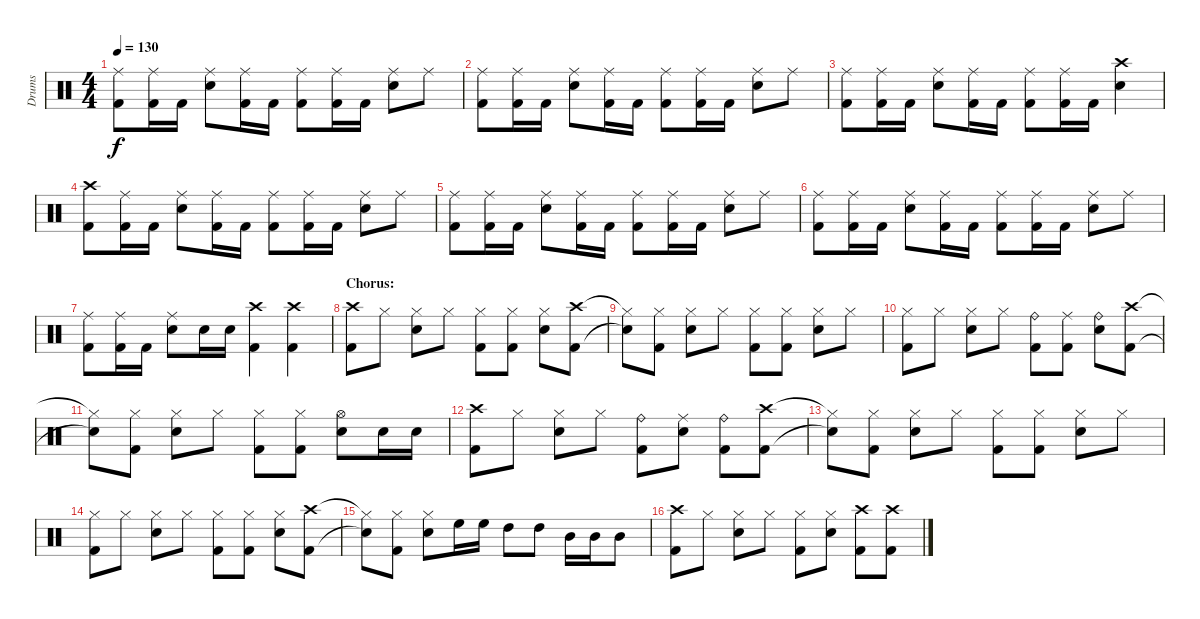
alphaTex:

\track ("Drums" "Drums") {instrument percussion}
\staff {score}
\articulation defaults
\ts (4 4)
\tempo 130
\clef neutral
\ks c
("Ride (middle)" "Kick (hit) 2").8{dy f} ("Ride (middle)" "Kick (hit) 2").16 "Kick (hit) 2".16 ("Ride (middle)" "Electric Snare (hit)").8 ("Ride (middle)" "Kick (hit) 2").16 "Kick (hit) 2".16 ("Ride (middle)" "Kick (hit) 2").8 ("Ride (middle)" "Kick (hit) 2").16 "Kick (hit) 2".16 ("Ride (middle)" "Electric Snare (hit)").8 "Ride (middle)".8 |
("Ride (middle)" "Kick (hit) 2").8 ("Ride (middle)" "Kick (hit) 2").16 "Kick (hit) 2".16 ("Ride (middle)" "Electric Snare (hit)").8 ("Ride (middle)" "Kick (hit) 2").16 "Kick (hit) 2".16 ("Ride (middle)" "Kick (hit) 2").8 ("Ride (middle)" "Kick (hit) 2").16 "Kick (hit) 2".16 ("Ride (middle)" "Electric Snare (hit)").8 "Ride (middle)".8 |
("Ride (middle)" "Kick (hit) 2").8 ("Ride (middle)" "Kick (hit) 2").16 "Kick (hit) 2".16 ("Ride (middle)" "Electric Snare (hit)").8 ("Ride (middle)" "Kick (hit) 2").16 "Kick (hit) 2".16 ("Ride (middle)" "Kick (hit) 2").8 ("Ride (middle)" "Kick (hit) 2").16 "Kick (hit) 2".16 ("Crash high (hit)" "Electric Snare (hit)").4 |
("Crash high (hit)" "Kick (hit) 2").8 ("Ride (middle)" "Kick (hit) 2").16 "Kick (hit) 2".16 ("Ride (middle)" "Electric Snare (hit)").8 ("Ride (middle)" "Kick (hit) 2").16 "Kick (hit) 2".16 ("Ride (middle)" "Kick (hit) 2").8 ("Ride (middle)" "Kick (hit) 2").16 "Kick (hit) 2".16 ("Ride (middle)" "Electric Snare (hit)").8 "Ride (middle)".8 |
("Ride (middle)" "Kick (hit) 2").8 ("Ride (middle)" "Kick (hit) 2").16 "Kick (hit) 2".16 ("Ride (middle)" "Electric Snare (hit)").8 ("Ride (middle)" "Kick (hit) 2").16 "Kick (hit) 2".16 ("Ride (middle)" "Kick (hit) 2").8 ("Ride (middle)" "Kick (hit) 2").16 "Kick (hit) 2".16 ("Ride (middle)" "Electric Snare (hit)").8 "Ride (middle)".8 |
("Ride (middle)" "Kick (hit) 2").8 ("Ride (middle)" "Kick (hit) 2").16 "Kick (hit) 2".16 ("Ride (middle)" "Electric Snare (hit)").8 ("Ride (middle)" "Kick (hit) 2").16 "Kick (hit) 2".16 ("Ride (middle)" "Kick (hit) 2").8 ("Ride (middle)" "Kick (hit) 2").16 "Kick (hit) 2".16 ("Ride (middle)" "Electric Snare (hit)").8 "Ride (middle)".8 |
("Ride (middle)" "Kick (hit) 2").8 ("Ride (middle)" "Kick (hit) 2").16 "Kick (hit) 2".16 ("Ride (middle)" "Electric Snare (hit)").8 "Electric Snare (hit)".16 "Electric Snare (hit)".16 ("Crash high (hit)" "Kick (hit) 2").4 ("Crash high (hit)" "Kick (hit) 2").4 |
\section ("" "Chorus:")
("Crash high (hit)" "Kick (hit) 2").8 "Hi-Hat (closed)".8 ("Hi-Hat (closed)" "Electric Snare (hit)").8 "Hi-Hat (closed)".8 ("Hi-Hat (closed)" "Kick (hit) 2").8 ("Hi-Hat (closed)" "Kick (hit) 2").8 ("Hi-Hat (closed)" "Electric Snare (hit)").8 ("Crash high (hit)" "Kick (hit) 2").8 |
("Hi-Hat (closed)"{t} "Snare (hit)"{t}).8 ("Hi-Hat (closed)" "Kick (hit) 2").8 ("Hi-Hat (closed)" "Electric Snare (hit)").8 "Hi-Hat (closed)".8 ("Hi-Hat (closed)" "Kick (hit) 2").8 ("Hi-Hat (closed)" "Kick (hit) 2").8 ("Hi-Hat (closed)" "Electric Snare (hit)").8 "Hi-Hat (closed)".8 |
("Hi-Hat (closed)" "Kick (hit) 2").8 "Hi-Hat (closed)".8 ("Hi-Hat (closed)" "Electric Snare (hit)").8 "Hi-Hat (closed)".8 ("Ride (bell)" "Kick (hit) 2").8 ("Ride (middle)" "Kick (hit) 2").8 ("Ride (bell)" "Electric Snare (hit)").8 ("Crash high (hit)" "Kick (hit) 2").8 |
("Hi-Hat (closed)"{t} "Snare (hit)"{t}).8 ("Hi-Hat (closed)" "Kick (hit) 2").8 ("Hi-Hat (closed)" "Electric Snare (hit)").8 "Hi-Hat (closed)".8 ("Hi-Hat (closed)" "Kick (hit) 2").8 ("Hi-Hat (closed)" "Kick (hit) 2").8 ("Hi-Hat (open)" "Electric Snare (hit)").8 "Electric Snare (hit)".16 "Electric Snare (hit)".16 |
("Crash high (hit)" "Kick (hit) 2").8 "Hi-Hat (closed)".8 ("Hi-Hat (closed)" "Electric Snare (hit)").8 "Hi-Hat (closed)".8 ("Ride (bell)" "Kick (hit) 2").8 ("Ride (middle)" "Electric Snare (hit)").8 ("Ride (bell)" "Kick (hit) 2").8 ("Crash high (hit)" "Kick (hit) 2").8 |
("Hi-Hat (closed)"{t} "Snare (hit)"{t}).8 ("Hi-Hat (closed)" "Kick (hit) 2").8 ("Hi-Hat (closed)" "Electric Snare (hit)").8 "Hi-Hat (closed)".8 ("Hi-Hat (closed)" "Kick (hit) 2").8 ("Hi-Hat (closed)" "Kick (hit) 2").8 ("Hi-Hat (closed)" "Electric Snare (hit)").8 "Hi-Hat (closed)".8 |
("Hi-Hat (closed)" "Kick (hit) 2").8 "Hi-Hat (closed)".8 ("Hi-Hat (closed)" "Electric Snare (hit)").8 "Hi-Hat (closed)".8 ("Hi-Hat (closed)" "Kick (hit) 2").8 ("Hi-Hat (closed)" "Kick (hit) 2").8 ("Hi-Hat (closed)" "Electric Snare (hit)").8 ("Crash high (hit)" "Kick (hit) 2").8 |
("Hi-Hat (closed)"{t} "Snare (hit)"{t}).8 ("Hi-Hat (closed)" "Kick (hit) 2").8 ("Hi-Hat (closed)" "Electric Snare (hit)").8 "High Floor Tom (hit)".16 "High Floor Tom (hit)".16 "High Tom (hit)".8 "High Tom (hit)".8 "Mid Tom (hit)".16 "Mid Tom (hit)".16 "Mid Tom (hit)".8 |
("Crash high (hit)" "Kick (hit) 2").8 "Hi-Hat (closed)".8 ("Hi-Hat (closed)" "Electric Snare (hit)").8 "Hi-Hat (closed)".8 ("Hi-Hat (closed)" "Kick (hit) 2").8 ("Hi-Hat (closed)" "Electric Snare (hit)").8 ("Crash high (hit)" "Kick (hit) 2").8 ("Crash high (hit)" "Kick (hit) 2").8
